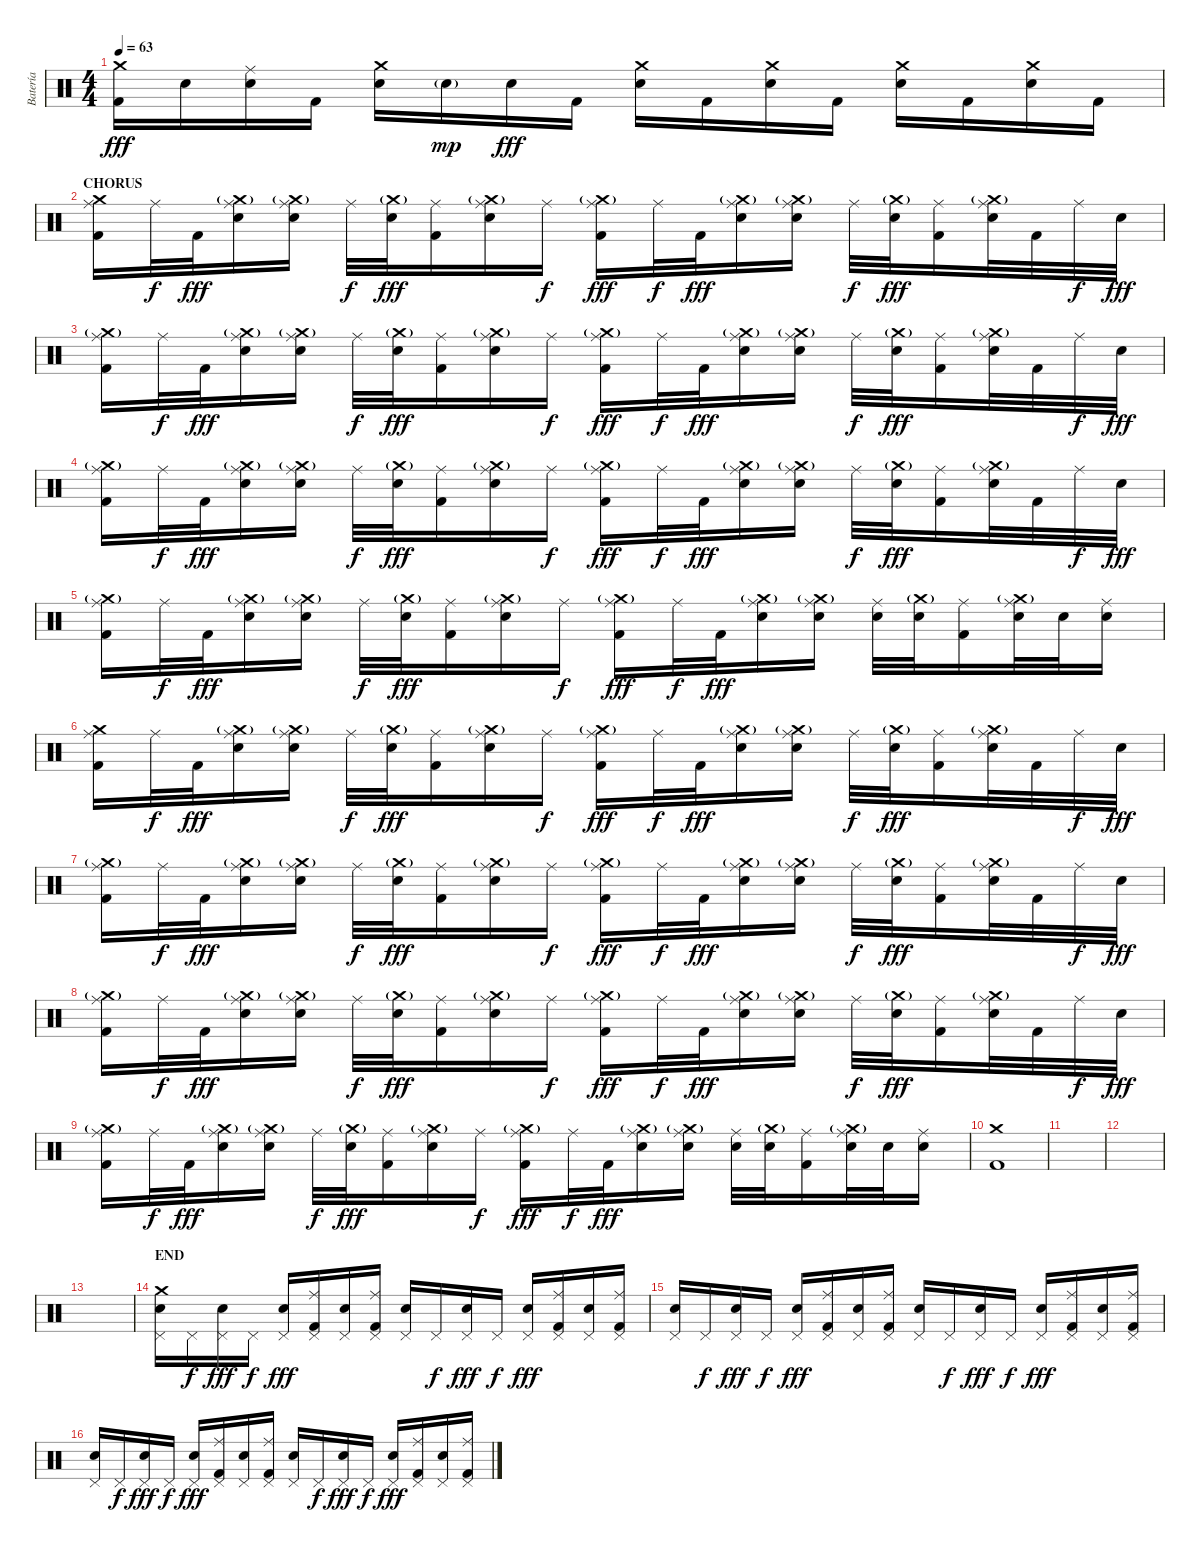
\track ("Batería" "Batería") {instrument percussion}
\staff {score}
\articulation defaults
\ts (4 4)
\tempo 63
\clef neutral
\ks c
("Crash medium (hit)" "Kick (hit) 2").16{dy fff} "Electric Snare (hit)".16 ("Electric Snare (hit)" "Ride (middle)").16 "Kick (hit) 2".16 ("Crash medium (hit)" "Electric Snare (hit)").16 "Electric Snare (hit)"{g}.16{dy mp} "Electric Snare (hit)".16{dy fff} "Kick (hit) 2".16 ("Crash medium (hit)" "Electric Snare (hit)").16 "Kick (hit) 2".16 ("Crash medium (hit)" "Electric Snare (hit)").16 "Kick (hit) 2".16 ("Crash medium (hit)" "Electric Snare (hit)").16 "Kick (hit) 2".16 ("Crash medium (hit)" "Electric Snare (hit)").16 "Kick (hit) 2".16 |
\section ("" "CHORUS")
("Crash medium (hit)" "Kick (hit) 2" "Ride (middle)").16 "Ride (middle)".32{dy f} "Kick (hit) 2".32{dy fff} ("Crash medium (hit)"{g} "Electric Snare (hit)" "Ride (middle)").16 ("Crash medium (hit)"{g} "Electric Snare (hit)" "Ride (middle)").16 "Ride (middle)".32{dy f} ("Crash medium (hit)"{g} "Electric Snare (hit)").32{dy fff} ("Kick (hit) 2" "Ride (middle)").16 ("Crash medium (hit)"{g} "Electric Snare (hit)" "Ride (middle)").16 "Ride (middle)".16{dy f} ("Crash medium (hit)"{g} "Kick (hit) 2" "Ride (middle)").16{dy fff} "Ride (middle)".32{dy f} "Kick (hit) 2".32{dy fff} ("Crash medium (hit)"{g} "Electric Snare (hit)" "Ride (middle)").16 ("Crash medium (hit)"{g} "Electric Snare (hit)" "Ride (middle)").16 "Ride (middle)".32{dy f} ("Crash medium (hit)"{g} "Electric Snare (hit)").32{dy fff} ("Kick (hit) 2" "Ride (middle)").16 ("Crash medium (hit)"{g} "Electric Snare (hit)" "Ride (middle)").32 "Kick (hit) 2".32 "Ride (middle)".32{dy f} "Electric Snare (hit)".32{dy fff} |
("Crash medium (hit)"{g} "Kick (hit) 2" "Ride (middle)").16 "Ride (middle)".32{dy f} "Kick (hit) 2".32{dy fff} ("Crash medium (hit)"{g} "Electric Snare (hit)" "Ride (middle)").16 ("Crash medium (hit)"{g} "Electric Snare (hit)" "Ride (middle)").16 "Ride (middle)".32{dy f} ("Crash medium (hit)"{g} "Electric Snare (hit)").32{dy fff} ("Kick (hit) 2" "Ride (middle)").16 ("Crash medium (hit)"{g} "Electric Snare (hit)" "Ride (middle)").16 "Ride (middle)".16{dy f} ("Crash medium (hit)"{g} "Kick (hit) 2" "Ride (middle)").16{dy fff} "Ride (middle)".32{dy f} "Kick (hit) 2".32{dy fff} ("Crash medium (hit)"{g} "Electric Snare (hit)" "Ride (middle)").16 ("Crash medium (hit)"{g} "Electric Snare (hit)" "Ride (middle)").16 "Ride (middle)".32{dy f} ("Crash medium (hit)"{g} "Electric Snare (hit)").32{dy fff} ("Kick (hit) 2" "Ride (middle)").16 ("Crash medium (hit)"{g} "Electric Snare (hit)" "Ride (middle)").32 "Kick (hit) 2".32 "Ride (middle)".32{dy f} "Electric Snare (hit)".32{dy fff} |
("Crash medium (hit)"{g} "Kick (hit) 2" "Ride (middle)").16 "Ride (middle)".32{dy f} "Kick (hit) 2".32{dy fff} ("Crash medium (hit)"{g} "Electric Snare (hit)" "Ride (middle)").16 ("Crash medium (hit)"{g} "Electric Snare (hit)" "Ride (middle)").16 "Ride (middle)".32{dy f} ("Crash medium (hit)"{g} "Electric Snare (hit)").32{dy fff} ("Kick (hit) 2" "Ride (middle)").16 ("Crash medium (hit)"{g} "Electric Snare (hit)" "Ride (middle)").16 "Ride (middle)".16{dy f} ("Crash medium (hit)"{g} "Kick (hit) 2" "Ride (middle)").16{dy fff} "Ride (middle)".32{dy f} "Kick (hit) 2".32{dy fff} ("Crash medium (hit)"{g} "Electric Snare (hit)" "Ride (middle)").16 ("Crash medium (hit)"{g} "Electric Snare (hit)" "Ride (middle)").16 "Ride (middle)".32{dy f} ("Crash medium (hit)"{g} "Electric Snare (hit)").32{dy fff} ("Kick (hit) 2" "Ride (middle)").16 ("Crash medium (hit)"{g} "Electric Snare (hit)" "Ride (middle)").32 "Kick (hit) 2".32 "Ride (middle)".32{dy f} "Electric Snare (hit)".32{dy fff} |
("Crash medium (hit)"{g} "Kick (hit) 2" "Ride (middle)").16 "Ride (middle)".32{dy f} "Kick (hit) 2".32{dy fff} ("Crash medium (hit)"{g} "Electric Snare (hit)" "Ride (middle)").16 ("Crash medium (hit)"{g} "Electric Snare (hit)" "Ride (middle)").16 "Ride (middle)".32{dy f} ("Crash medium (hit)"{g} "Electric Snare (hit)").32{dy fff} ("Kick (hit) 2" "Ride (middle)").16 ("Crash medium (hit)"{g} "Electric Snare (hit)" "Ride (middle)").16 "Ride (middle)".16{dy f} ("Crash medium (hit)"{g} "Kick (hit) 2" "Ride (middle)").16{dy fff} "Ride (middle)".32{dy f} "Kick (hit) 2".32{dy fff} ("Crash medium (hit)"{g} "Electric Snare (hit)" "Ride (middle)").16 ("Crash medium (hit)"{g} "Electric Snare (hit)" "Ride (middle)").16 ("Electric Snare (hit)" "Ride (middle)").32 ("Crash medium (hit)"{g} "Electric Snare (hit)").32 ("Kick (hit) 2" "Ride (middle)").16 ("Crash medium (hit)"{g} "Electric Snare (hit)" "Ride (middle)").32 "Electric Snare (hit)".32 ("Electric Snare (hit)" "Ride (middle)").16 |
("Crash medium (hit)" "Kick (hit) 2" "Ride (middle)").16 "Ride (middle)".32{dy f} "Kick (hit) 2".32{dy fff} ("Crash medium (hit)"{g} "Electric Snare (hit)" "Ride (middle)").16 ("Crash medium (hit)"{g} "Electric Snare (hit)" "Ride (middle)").16 "Ride (middle)".32{dy f} ("Crash medium (hit)"{g} "Electric Snare (hit)").32{dy fff} ("Kick (hit) 2" "Ride (middle)").16 ("Crash medium (hit)"{g} "Electric Snare (hit)" "Ride (middle)").16 "Ride (middle)".16{dy f} ("Crash medium (hit)"{g} "Kick (hit) 2" "Ride (middle)").16{dy fff} "Ride (middle)".32{dy f} "Kick (hit) 2".32{dy fff} ("Crash medium (hit)"{g} "Electric Snare (hit)" "Ride (middle)").16 ("Crash medium (hit)"{g} "Electric Snare (hit)" "Ride (middle)").16 "Ride (middle)".32{dy f} ("Crash medium (hit)"{g} "Electric Snare (hit)").32{dy fff} ("Kick (hit) 2" "Ride (middle)").16 ("Crash medium (hit)"{g} "Electric Snare (hit)" "Ride (middle)").32 "Kick (hit) 2".32 "Ride (middle)".32{dy f} "Electric Snare (hit)".32{dy fff} |
("Crash medium (hit)"{g} "Kick (hit) 2" "Ride (middle)").16 "Ride (middle)".32{dy f} "Kick (hit) 2".32{dy fff} ("Crash medium (hit)"{g} "Electric Snare (hit)" "Ride (middle)").16 ("Crash medium (hit)"{g} "Electric Snare (hit)" "Ride (middle)").16 "Ride (middle)".32{dy f} ("Crash medium (hit)"{g} "Electric Snare (hit)").32{dy fff} ("Kick (hit) 2" "Ride (middle)").16 ("Crash medium (hit)"{g} "Electric Snare (hit)" "Ride (middle)").16 "Ride (middle)".16{dy f} ("Crash medium (hit)"{g} "Kick (hit) 2" "Ride (middle)").16{dy fff} "Ride (middle)".32{dy f} "Kick (hit) 2".32{dy fff} ("Crash medium (hit)"{g} "Electric Snare (hit)" "Ride (middle)").16 ("Crash medium (hit)"{g} "Electric Snare (hit)" "Ride (middle)").16 "Ride (middle)".32{dy f} ("Crash medium (hit)"{g} "Electric Snare (hit)").32{dy fff} ("Kick (hit) 2" "Ride (middle)").16 ("Crash medium (hit)"{g} "Electric Snare (hit)" "Ride (middle)").32 "Kick (hit) 2".32 "Ride (middle)".32{dy f} "Electric Snare (hit)".32{dy fff} |
("Crash medium (hit)"{g} "Kick (hit) 2" "Ride (middle)").16 "Ride (middle)".32{dy f} "Kick (hit) 2".32{dy fff} ("Crash medium (hit)"{g} "Electric Snare (hit)" "Ride (middle)").16 ("Crash medium (hit)"{g} "Electric Snare (hit)" "Ride (middle)").16 "Ride (middle)".32{dy f} ("Crash medium (hit)"{g} "Electric Snare (hit)").32{dy fff} ("Kick (hit) 2" "Ride (middle)").16 ("Crash medium (hit)"{g} "Electric Snare (hit)" "Ride (middle)").16 "Ride (middle)".16{dy f} ("Crash medium (hit)"{g} "Kick (hit) 2" "Ride (middle)").16{dy fff} "Ride (middle)".32{dy f} "Kick (hit) 2".32{dy fff} ("Crash medium (hit)"{g} "Electric Snare (hit)" "Ride (middle)").16 ("Crash medium (hit)"{g} "Electric Snare (hit)" "Ride (middle)").16 "Ride (middle)".32{dy f} ("Crash medium (hit)"{g} "Electric Snare (hit)").32{dy fff} ("Kick (hit) 2" "Ride (middle)").16 ("Crash medium (hit)"{g} "Electric Snare (hit)" "Ride (middle)").32 "Kick (hit) 2".32 "Ride (middle)".32{dy f} "Electric Snare (hit)".32{dy fff} |
("Crash medium (hit)"{g} "Kick (hit) 2" "Ride (middle)").16 "Ride (middle)".32{dy f} "Kick (hit) 2".32{dy fff} ("Crash medium (hit)"{g} "Electric Snare (hit)" "Ride (middle)").16 ("Crash medium (hit)"{g} "Electric Snare (hit)" "Ride (middle)").16 "Ride (middle)".32{dy f} ("Crash medium (hit)"{g} "Electric Snare (hit)").32{dy fff} ("Kick (hit) 2" "Ride (middle)").16 ("Crash medium (hit)"{g} "Electric Snare (hit)" "Ride (middle)").16 "Ride (middle)".16{dy f} ("Crash medium (hit)"{g} "Kick (hit) 2" "Ride (middle)").16{dy fff} "Ride (middle)".32{dy f} "Kick (hit) 2".32{dy fff} ("Crash medium (hit)"{g} "Electric Snare (hit)" "Ride (middle)").16 ("Crash medium (hit)"{g} "Electric Snare (hit)" "Ride (middle)").16 ("Electric Snare (hit)" "Ride (middle)").32 ("Crash medium (hit)"{g} "Electric Snare (hit)").32 ("Kick (hit) 2" "Ride (middle)").16 ("Crash medium (hit)"{g} "Electric Snare (hit)" "Ride (middle)").32 "Electric Snare (hit)".32 ("Electric Snare (hit)" "Ride (middle)").16 |
("Crash medium (hit)" "Kick (hit) 2").1 |
|
|
|
\section ("" "END")
("Crash medium (hit)" "Electric Snare (hit)" "Pedal Hi-Hat (hit)").16 "Pedal Hi-Hat (hit)".16{dy f} ("Electric Snare (hit)" "Pedal Hi-Hat (hit)").16{dy fff} "Pedal Hi-Hat (hit)".16{dy f} ("Electric Snare (hit)" "Pedal Hi-Hat (hit)").16{dy fff} ("Kick (hit) 2" "Ride (middle)" "Pedal Hi-Hat (hit)").16 ("Electric Snare (hit)" "Pedal Hi-Hat (hit)").16 ("Kick (hit) 2" "Ride (middle)" "Pedal Hi-Hat (hit)").16 ("Electric Snare (hit)" "Pedal Hi-Hat (hit)").16 "Pedal Hi-Hat (hit)".16{dy f} ("Electric Snare (hit)" "Pedal Hi-Hat (hit)").16{dy fff} "Pedal Hi-Hat (hit)".16{dy f} ("Electric Snare (hit)" "Pedal Hi-Hat (hit)").16{dy fff} ("Kick (hit) 2" "Ride (middle)" "Pedal Hi-Hat (hit)").16 ("Electric Snare (hit)" "Pedal Hi-Hat (hit)").16 ("Kick (hit) 2" "Ride (middle)" "Pedal Hi-Hat (hit)").16 |
("Electric Snare (hit)" "Pedal Hi-Hat (hit)").16 "Pedal Hi-Hat (hit)".16{dy f} ("Electric Snare (hit)" "Pedal Hi-Hat (hit)").16{dy fff} "Pedal Hi-Hat (hit)".16{dy f} ("Electric Snare (hit)" "Pedal Hi-Hat (hit)").16{dy fff} ("Kick (hit) 2" "Ride (middle)" "Pedal Hi-Hat (hit)").16 ("Electric Snare (hit)" "Pedal Hi-Hat (hit)").16 ("Kick (hit) 2" "Ride (middle)" "Pedal Hi-Hat (hit)").16 ("Electric Snare (hit)" "Pedal Hi-Hat (hit)").16 "Pedal Hi-Hat (hit)".16{dy f} ("Electric Snare (hit)" "Pedal Hi-Hat (hit)").16{dy fff} "Pedal Hi-Hat (hit)".16{dy f} ("Electric Snare (hit)" "Pedal Hi-Hat (hit)").16{dy fff} ("Kick (hit) 2" "Ride (middle)" "Pedal Hi-Hat (hit)").16 ("Electric Snare (hit)" "Pedal Hi-Hat (hit)").16 ("Kick (hit) 2" "Ride (middle)" "Pedal Hi-Hat (hit)").16 |
("Electric Snare (hit)" "Pedal Hi-Hat (hit)").16 "Pedal Hi-Hat (hit)".16{dy f} ("Electric Snare (hit)" "Pedal Hi-Hat (hit)").16{dy fff} "Pedal Hi-Hat (hit)".16{dy f} ("Electric Snare (hit)" "Pedal Hi-Hat (hit)").16{dy fff} ("Kick (hit) 2" "Ride (middle)" "Pedal Hi-Hat (hit)").16 ("Electric Snare (hit)" "Pedal Hi-Hat (hit)").16 ("Kick (hit) 2" "Ride (middle)" "Pedal Hi-Hat (hit)").16 ("Electric Snare (hit)" "Pedal Hi-Hat (hit)").16 "Pedal Hi-Hat (hit)".16{dy f} ("Electric Snare (hit)" "Pedal Hi-Hat (hit)").16{dy fff} "Pedal Hi-Hat (hit)".16{dy f} ("Electric Snare (hit)" "Pedal Hi-Hat (hit)").16{dy fff} ("Kick (hit) 2" "Ride (middle)" "Pedal Hi-Hat (hit)").16 ("Electric Snare (hit)" "Pedal Hi-Hat (hit)").16 ("Kick (hit) 2" "Ride (middle)" "Pedal Hi-Hat (hit)").16
